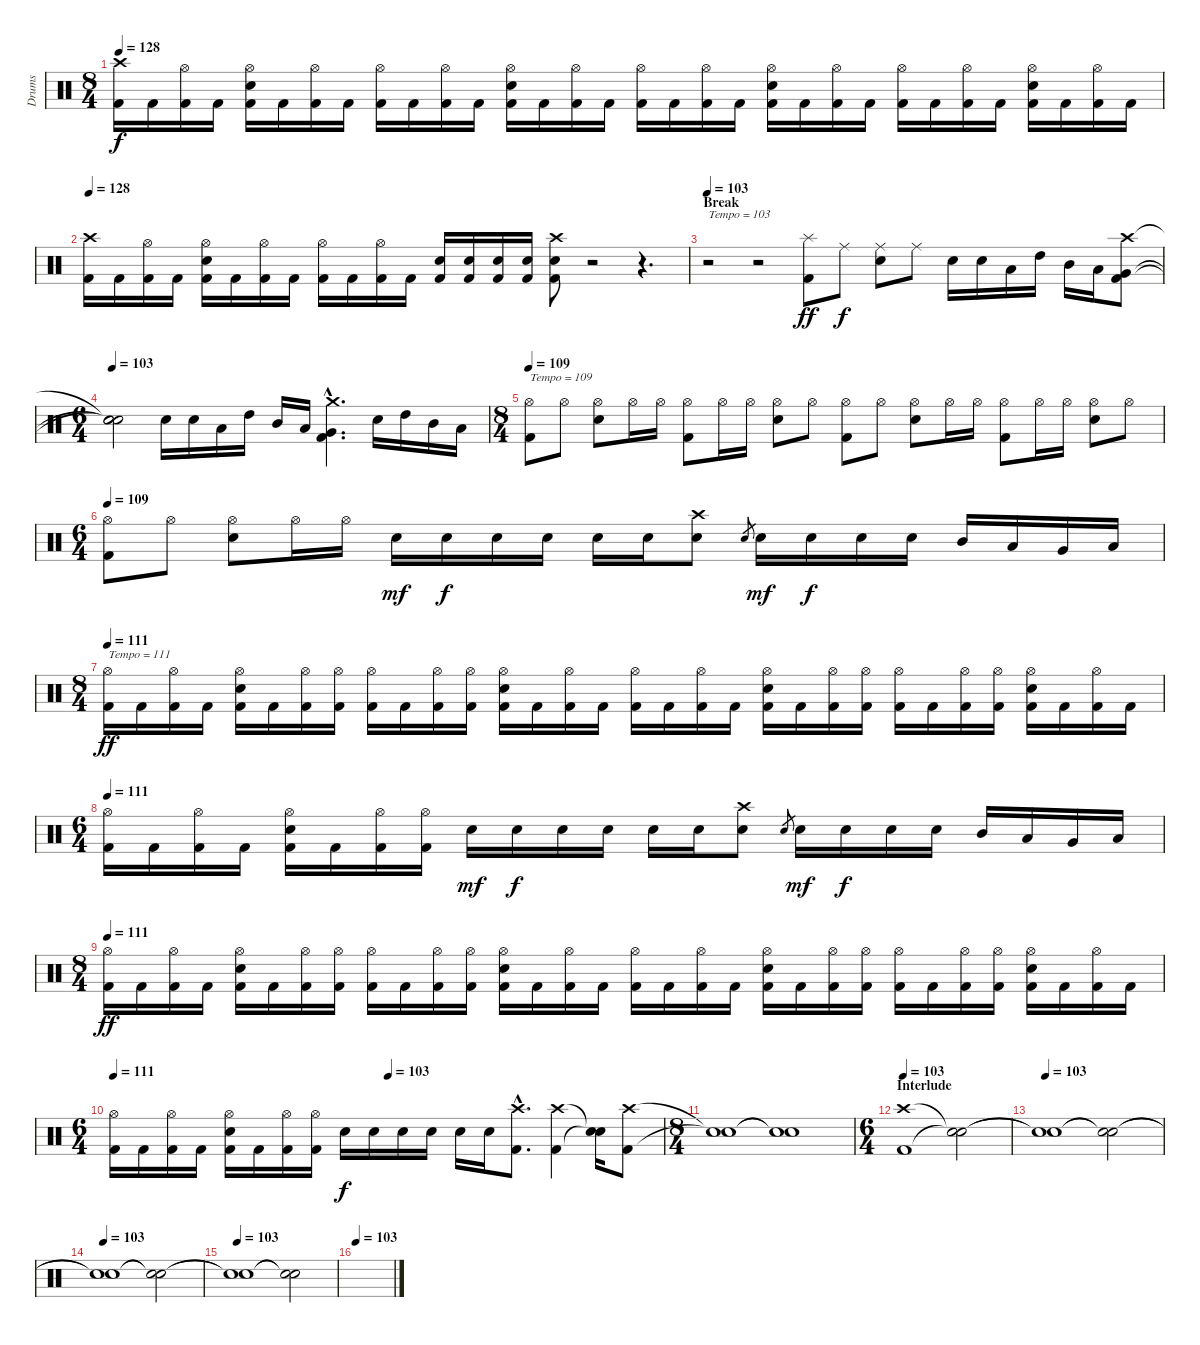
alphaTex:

\track ("Drums" "Drums") {instrument percussion}
\staff {score}
\articulation defaults
\ts (8 4)
\tempo 128
\clef neutral
\ks c
("Crash high (hit)" "Kick (hit) 2").16{dy f} "Kick (hit) 2".16 ("Hi-Hat (open)" "Kick (hit) 2").16 "Kick (hit) 2".16 ("Hi-Hat (open)" "Electric Snare (hit)" "Kick (hit) 2").16 "Kick (hit) 2".16 ("Hi-Hat (open)" "Kick (hit) 2").16 "Kick (hit) 2".16 ("Hi-Hat (open)" "Kick (hit) 2").16 "Kick (hit) 2".16 ("Hi-Hat (open)" "Kick (hit) 2").16 "Kick (hit) 2".16 ("Hi-Hat (open)" "Electric Snare (hit)" "Kick (hit) 2").16 "Kick (hit) 2".16 ("Hi-Hat (open)" "Kick (hit) 2").16 "Kick (hit) 2".16 ("Hi-Hat (open)" "Kick (hit) 2").16 "Kick (hit) 2".16 ("Hi-Hat (open)" "Kick (hit) 2").16 "Kick (hit) 2".16 ("Hi-Hat (open)" "Electric Snare (hit)" "Kick (hit) 2").16 "Kick (hit) 2".16 ("Hi-Hat (open)" "Kick (hit) 2").16 "Kick (hit) 2".16 ("Hi-Hat (open)" "Kick (hit) 2").16 "Kick (hit) 2".16 ("Hi-Hat (open)" "Kick (hit) 2").16 "Kick (hit) 2".16 ("Hi-Hat (open)" "Electric Snare (hit)" "Kick (hit) 2").16 "Kick (hit) 2".16 ("Hi-Hat (open)" "Kick (hit) 2").16 "Kick (hit) 2".16 |
\tempo 128
("Crash high (hit)" "Kick (hit) 2").16 "Kick (hit) 2".16 ("Hi-Hat (open)" "Kick (hit) 2").16 "Kick (hit) 2".16 ("Hi-Hat (open)" "Electric Snare (hit)" "Kick (hit) 2").16 "Kick (hit) 2".16 ("Hi-Hat (open)" "Kick (hit) 2").16 "Kick (hit) 2".16 ("Hi-Hat (open)" "Kick (hit) 2").16 "Kick (hit) 2".16 ("Hi-Hat (open)" "Kick (hit) 2").16 "Kick (hit) 2".16 ("Electric Snare (hit)" "Kick (hit) 2").16 ("Electric Snare (hit)" "Kick (hit) 2").16 ("Electric Snare (hit)" "Kick (hit) 2").16 ("Electric Snare (hit)" "Kick (hit) 2").16 ("Crash high (hit)" "Electric Snare (hit)" "Kick (hit) 2").8 r.2 r.4{d} |
\section ("" "Break")
\tempo 103
r.2{txt "Tempo = 103"} r.2 ("Splash (hit)" "Kick (hit) 2").8{dy ff} "Ride (middle)".8{dy f} ("Ride (middle)" "Electric Snare (hit)").8 "Ride (middle)".8 "Electric Snare (hit)".16 "Electric Snare (hit)".16 "Low Tom (hit)".16 "High Tom (hit)".16 "Mid Tom (hit)".16 "Low Tom (hit)".16 ("Crash high (hit)" "Very Low Tom (hit)" "Kick (hit) 2").8 |
\ts (6 4)
\tempo 103
("Snare (hit)"{t} "Snare (hit)"{t} "Snare (hit)"{t}).2 "Electric Snare (hit)".16 "Electric Snare (hit)".16 "Low Tom (hit)".16 "High Tom (hit)".16 "Mid Tom (hit)".16 "Low Tom (hit)".16 ("Crash medium (hit)"{hac} "Very Low Tom (hit)"{hac} "Kick (hit) 2"{hac}).4{d} "Electric Snare (hit)".16 "High Tom (hit)".16 "Mid Tom (hit)".16 "Low Tom (hit)".16 |
\ts (8 4)
\tempo 109
("Hi-Hat (open)" "Kick (hit) 2").8{txt "Tempo = 109"} "Hi-Hat (open)".8 ("Hi-Hat (open)" "Electric Snare (hit)").8 "Hi-Hat (open)".16 "Hi-Hat (open)".16 ("Hi-Hat (open)" "Kick (hit) 2").8 "Hi-Hat (open)".16 "Hi-Hat (open)".16 ("Hi-Hat (open)" "Electric Snare (hit)").8 "Hi-Hat (open)".8 ("Hi-Hat (open)" "Kick (hit) 2").8 "Hi-Hat (open)".8 ("Hi-Hat (open)" "Electric Snare (hit)").8 "Hi-Hat (open)".16 "Hi-Hat (open)".16 ("Hi-Hat (open)" "Kick (hit) 2").8 "Hi-Hat (open)".16 "Hi-Hat (open)".16 ("Hi-Hat (open)" "Electric Snare (hit)").8 "Hi-Hat (open)".8 |
\ts (6 4)
\tempo 109
("Hi-Hat (open)" "Kick (hit) 2").8 "Hi-Hat (open)".8 ("Hi-Hat (open)" "Electric Snare (hit)").8 "Hi-Hat (open)".16 "Hi-Hat (open)".16 "Electric Snare (hit)".16{dy mf} "Electric Snare (hit)".16{dy f} "Electric Snare (hit)".16 "Electric Snare (hit)".16 "Electric Snare (hit)".16 "Electric Snare (hit)".16 ("Crash high (hit)" "Electric Snare (hit)").8 "Electric Snare (hit)".8{gr} "Electric Snare (hit)".16{dy mf} "Electric Snare (hit)".16{dy f} "Electric Snare (hit)".16 "Electric Snare (hit)".16 "Mid Tom (hit)".16 "Low Tom (hit)".16 "Very Low Tom (hit)".16 "Low Floor Tom (hit)".16 |
\ts (8 4)
\tempo 111
("Hi-Hat (open)" "Kick (hit) 2").16{txt "Tempo = 111" dy ff} "Kick (hit) 2".16 ("Hi-Hat (open)" "Kick (hit) 2").16 "Kick (hit) 2".16 ("Hi-Hat (open)" "Electric Snare (hit)" "Kick (hit) 2").16 "Kick (hit) 2".16 ("Hi-Hat (open)" "Kick (hit) 2").16 ("Hi-Hat (open)" "Kick (hit) 2").16 ("Hi-Hat (open)" "Kick (hit) 2").16 "Kick (hit) 2".16 ("Hi-Hat (open)" "Kick (hit) 2").16 ("Hi-Hat (open)" "Kick (hit) 2").16 ("Hi-Hat (open)" "Electric Snare (hit)" "Kick (hit) 2").16 "Kick (hit) 2".16 ("Hi-Hat (open)" "Kick (hit) 2").16 "Kick (hit) 2".16 ("Hi-Hat (open)" "Kick (hit) 2").16 "Kick (hit) 2".16 ("Hi-Hat (open)" "Kick (hit) 2").16 "Kick (hit) 2".16 ("Hi-Hat (open)" "Electric Snare (hit)" "Kick (hit) 2").16 "Kick (hit) 2".16 ("Hi-Hat (open)" "Kick (hit) 2").16 ("Hi-Hat (open)" "Kick (hit) 2").16 ("Hi-Hat (open)" "Kick (hit) 2").16 "Kick (hit) 2".16 ("Hi-Hat (open)" "Kick (hit) 2").16 ("Hi-Hat (open)" "Kick (hit) 2").16 ("Hi-Hat (open)" "Electric Snare (hit)" "Kick (hit) 2").16 "Kick (hit) 2".16 ("Hi-Hat (open)" "Kick (hit) 2").16 "Kick (hit) 2".16 |
\ts (6 4)
\tempo 111
("Hi-Hat (open)" "Kick (hit) 2").16 "Kick (hit) 2".16 ("Hi-Hat (open)" "Kick (hit) 2").16 "Kick (hit) 2".16 ("Hi-Hat (open)" "Electric Snare (hit)" "Kick (hit) 2").16 "Kick (hit) 2".16 ("Hi-Hat (open)" "Kick (hit) 2").16 ("Hi-Hat (open)" "Kick (hit) 2").16 "Electric Snare (hit)".16{dy mf} "Electric Snare (hit)".16{dy f} "Electric Snare (hit)".16 "Electric Snare (hit)".16 "Electric Snare (hit)".16 "Electric Snare (hit)".16 ("Crash high (hit)" "Electric Snare (hit)").8 "Electric Snare (hit)".8{gr} "Electric Snare (hit)".16{dy mf} "Electric Snare (hit)".16{dy f} "Electric Snare (hit)".16 "Electric Snare (hit)".16 "Mid Tom (hit)".16 "Low Tom (hit)".16 "Very Low Tom (hit)".16 "Low Floor Tom (hit)".16 |
\ts (8 4)
\tempo 111
("Hi-Hat (open)" "Kick (hit) 2").16{dy ff} "Kick (hit) 2".16 ("Hi-Hat (open)" "Kick (hit) 2").16 "Kick (hit) 2".16 ("Hi-Hat (open)" "Electric Snare (hit)" "Kick (hit) 2").16 "Kick (hit) 2".16 ("Hi-Hat (open)" "Kick (hit) 2").16 ("Hi-Hat (open)" "Kick (hit) 2").16 ("Hi-Hat (open)" "Kick (hit) 2").16 "Kick (hit) 2".16 ("Hi-Hat (open)" "Kick (hit) 2").16 ("Hi-Hat (open)" "Kick (hit) 2").16 ("Hi-Hat (open)" "Electric Snare (hit)" "Kick (hit) 2").16 "Kick (hit) 2".16 ("Hi-Hat (open)" "Kick (hit) 2").16 "Kick (hit) 2".16 ("Hi-Hat (open)" "Kick (hit) 2").16 "Kick (hit) 2".16 ("Hi-Hat (open)" "Kick (hit) 2").16 "Kick (hit) 2".16 ("Hi-Hat (open)" "Electric Snare (hit)" "Kick (hit) 2").16 "Kick (hit) 2".16 ("Hi-Hat (open)" "Kick (hit) 2").16 ("Hi-Hat (open)" "Kick (hit) 2").16 ("Hi-Hat (open)" "Kick (hit) 2").16 "Kick (hit) 2".16 ("Hi-Hat (open)" "Kick (hit) 2").16 ("Hi-Hat (open)" "Kick (hit) 2").16 ("Hi-Hat (open)" "Electric Snare (hit)" "Kick (hit) 2").16 "Kick (hit) 2".16 ("Hi-Hat (open)" "Kick (hit) 2").16 "Kick (hit) 2".16 |
\ts (6 4)
\tempo 111
\tempo (103 0.5)
("Hi-Hat (open)" "Kick (hit) 2").16 "Kick (hit) 2".16 ("Hi-Hat (open)" "Kick (hit) 2").16 "Kick (hit) 2".16 ("Hi-Hat (open)" "Electric Snare (hit)" "Kick (hit) 2").16 "Kick (hit) 2".16 ("Hi-Hat (open)" "Kick (hit) 2").16 ("Hi-Hat (open)" "Kick (hit) 2").16 "Electric Snare (hit)".16{dy f} "Electric Snare (hit)".16 "Electric Snare (hit)".16 "Electric Snare (hit)".16 "Electric Snare (hit)".16 "Electric Snare (hit)".16 ("Crash high (hit)"{hac} "Kick (hit) 2"{hac}).8{d} ("Crash high (hit)" "Kick (hit) 2").4 ("Snare (hit)"{t} "Snare (hit)"{t}).16 ("Crash high (hit)" "Kick (hit) 2").8 |
\ts (8 4)
("Snare (hit)"{t} "Snare (hit)"{t}).1 ("Snare (hit)"{t} "Snare (hit)"{t}).1 |
\ts (6 4)
\section ("" "Interlude")
\tempo 103
("Crash high (hit)" "Kick (hit) 2").1 ("Snare (hit)"{t} "Snare (hit)"{t}).2 |
\tempo 103
("Snare (hit)"{t} "Snare (hit)"{t}).1 ("Snare (hit)"{t} "Snare (hit)"{t}).2 |
\tempo 103
("Snare (hit)"{t} "Snare (hit)"{t}).1{volume 0} ("Snare (hit)"{t} "Snare (hit)"{t}).2 |
\tempo 103
("Snare (hit)"{t} "Snare (hit)"{t}).1 ("Snare (hit)"{t} "Snare (hit)"{t}).2 |
\tempo 103
